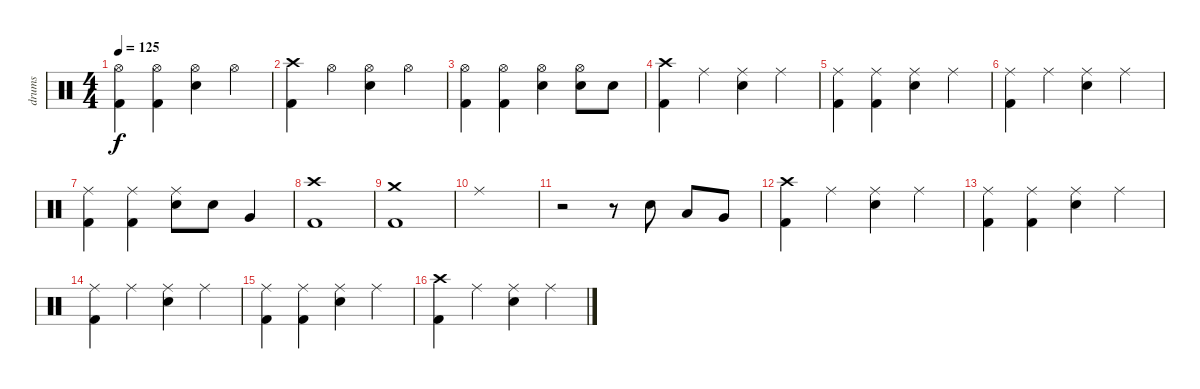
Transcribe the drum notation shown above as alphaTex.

\track ("drums" "drums") {instrument percussion}
\staff {score}
\articulation defaults
\ts (4 4)
\tempo 125
\clef neutral
\ks c
("Kick (hit) 2" "Hi-Hat (open)").4{dy f} ("Kick (hit) 2" "Hi-Hat (open)").4 ("Hi-Hat (open)" "Electric Snare (hit)").4 "Hi-Hat (open)".4 |
("Kick (hit) 2" "Crash high (hit)").4 "Hi-Hat (open)".4 ("Hi-Hat (open)" "Electric Snare (hit)").4 "Hi-Hat (open)".4 |
("Kick (hit) 2" "Hi-Hat (open)").4 ("Kick (hit) 2" "Hi-Hat (open)").4 ("Hi-Hat (open)" "Electric Snare (hit)").4 ("Hi-Hat (open)" "Electric Snare (hit)").8 "Electric Snare (hit)".8 |
("Kick (hit) 2" "Crash high (hit)").4 "Ride (middle)".4 ("Ride (middle)" "Electric Snare (hit)").4 "Ride (middle)".4 |
("Kick (hit) 2" "Ride (middle)").4 ("Kick (hit) 2" "Ride (middle)").4 ("Ride (middle)" "Electric Snare (hit)").4 "Ride (middle)".4 |
("Kick (hit) 2" "Ride (middle)").4 "Ride (middle)".4 ("Ride (middle)" "Electric Snare (hit)").4 "Ride (middle)".4 |
("Kick (hit) 2" "Ride (middle)").4 ("Kick (hit) 2" "Ride (middle)").4 ("Ride (middle)" "Electric Snare (hit)").8 "Electric Snare (hit)".8 "Very Low Tom (hit)".4 |
("Kick (hit) 2" "Crash high (hit)").1 |
("Kick (hit) 2" "Crash medium (hit)").1 |
"Ride (middle)".1 |
r.2 r.8 "Electric Snare (hit)".8 "Low Tom (hit)".8 "Very Low Tom (hit)".8 |
("Kick (hit) 2" "Crash high (hit)").4 "Ride (middle)".4 ("Ride (middle)" "Electric Snare (hit)").4 "Ride (middle)".4 |
("Kick (hit) 2" "Ride (middle)").4 ("Kick (hit) 2" "Ride (middle)").4 ("Ride (middle)" "Electric Snare (hit)").4 "Ride (middle)".4 |
("Kick (hit) 2" "Ride (middle)").4 "Ride (middle)".4 ("Ride (middle)" "Electric Snare (hit)").4 "Ride (middle)".4 |
("Kick (hit) 2" "Ride (middle)").4 ("Kick (hit) 2" "Ride (middle)").4 ("Ride (middle)" "Electric Snare (hit)").4 "Ride (middle)".4 |
("Kick (hit) 2" "Crash high (hit)").4 "Ride (middle)".4 ("Ride (middle)" "Electric Snare (hit)").4 "Ride (middle)".4
